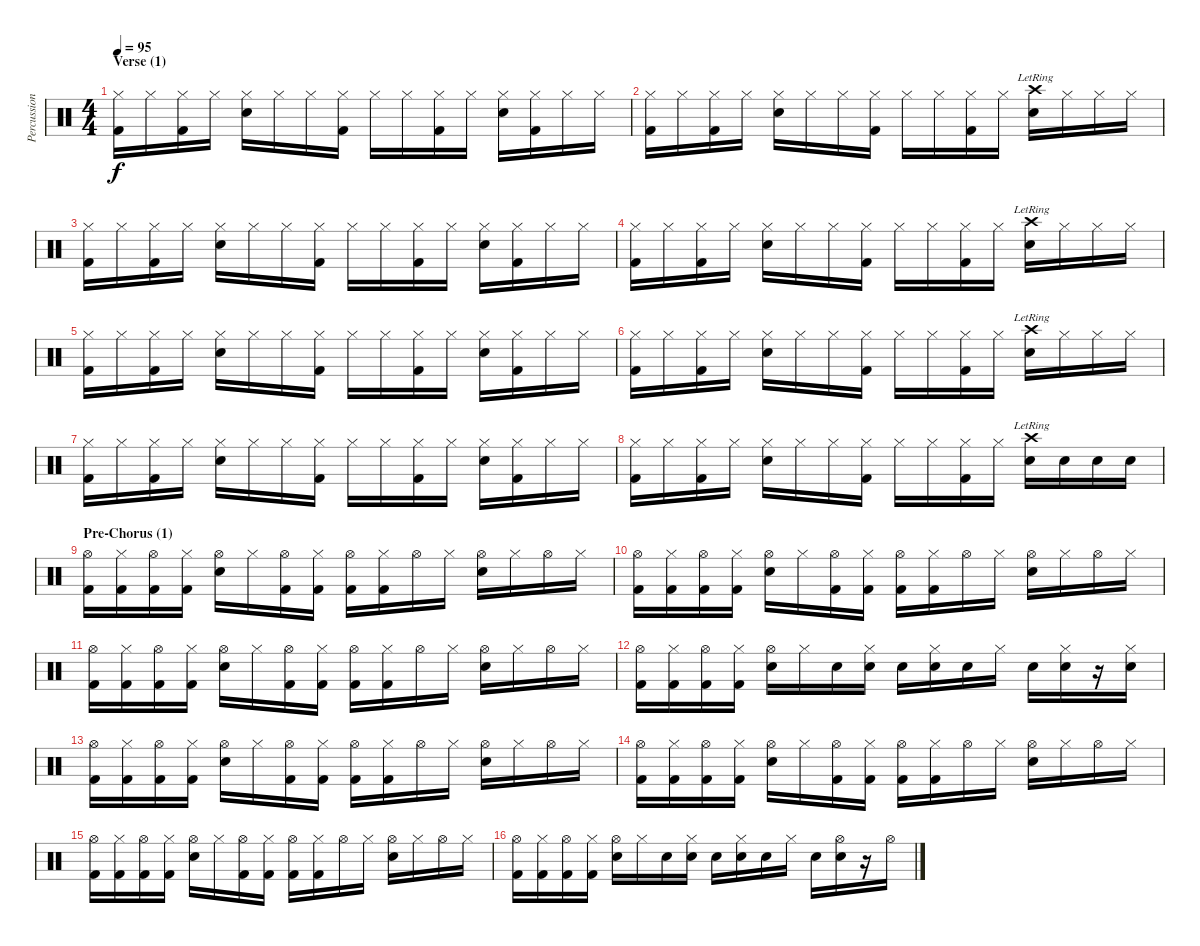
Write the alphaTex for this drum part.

\track ("Percussion" "Percussion") {instrument percussion}
\staff {score}
\articulation defaults
\ts (4 4)
\section ("" "Verse (1)")
\tempo 95
\clef neutral
\ks c
("Hi-Hat (closed)" "Kick (hit) 2").16{dy f} "Hi-Hat (closed)"{x}.16 ("Hi-Hat (closed)" "Kick (hit) 2").16 "Hi-Hat (closed)"{x}.16 ("Hi-Hat (closed)" "Snare (hit) 2").16 "Hi-Hat (closed)"{x}.16 "Hi-Hat (closed)".16 ("Hi-Hat (closed)"{x} "Kick (hit) 2").16 "Hi-Hat (closed)".16 "Hi-Hat (closed)"{x}.16 ("Hi-Hat (closed)" "Kick (hit) 2").16 "Hi-Hat (closed)"{x}.16 ("Hi-Hat (closed)" "Snare (hit) 2").16 ("Hi-Hat (closed)"{x} "Kick (hit) 2").16 "Hi-Hat (closed)".16 "Hi-Hat (closed)"{x}.16 |
("Hi-Hat (closed)" "Kick (hit) 2").16 "Hi-Hat (closed)"{x}.16 ("Hi-Hat (closed)" "Kick (hit) 2").16 "Hi-Hat (closed)"{x}.16 ("Hi-Hat (closed)" "Snare (hit) 2").16 "Hi-Hat (closed)"{x}.16 "Hi-Hat (closed)".16 ("Hi-Hat (closed)"{x} "Kick (hit) 2").16 "Hi-Hat (closed)".16 "Hi-Hat (closed)"{x}.16 ("Hi-Hat (closed)" "Kick (hit) 2").16 "Hi-Hat (closed)"{x}.16 ("Crash high (hit)"{lr} "Snare (hit) 2").16 "Hi-Hat (closed)"{x}.16 "Hi-Hat (closed)".16 "Hi-Hat (closed)"{x}.16 |
("Hi-Hat (closed)" "Kick (hit) 2").16 "Hi-Hat (closed)"{x}.16 ("Hi-Hat (closed)" "Kick (hit) 2").16 "Hi-Hat (closed)"{x}.16 ("Hi-Hat (closed)" "Snare (hit) 2").16 "Hi-Hat (closed)"{x}.16 "Hi-Hat (closed)".16 ("Hi-Hat (closed)"{x} "Kick (hit) 2").16 "Hi-Hat (closed)".16 "Hi-Hat (closed)"{x}.16 ("Hi-Hat (closed)" "Kick (hit) 2").16 "Hi-Hat (closed)"{x}.16 ("Hi-Hat (closed)" "Snare (hit) 2").16 ("Hi-Hat (closed)"{x} "Kick (hit) 2").16 "Hi-Hat (closed)".16 "Hi-Hat (closed)"{x}.16 |
("Hi-Hat (closed)" "Kick (hit) 2").16 "Hi-Hat (closed)"{x}.16 ("Hi-Hat (closed)" "Kick (hit) 2").16 "Hi-Hat (closed)"{x}.16 ("Hi-Hat (closed)" "Snare (hit) 2").16 "Hi-Hat (closed)"{x}.16 "Hi-Hat (closed)".16 ("Hi-Hat (closed)"{x} "Kick (hit) 2").16 "Hi-Hat (closed)".16 "Hi-Hat (closed)"{x}.16 ("Hi-Hat (closed)" "Kick (hit) 2").16 "Hi-Hat (closed)"{x}.16 ("Crash high (hit)"{lr} "Snare (hit) 2").16 "Hi-Hat (closed)"{x}.16 "Hi-Hat (closed)".16 "Hi-Hat (closed)"{x}.16 |
("Hi-Hat (closed)" "Kick (hit) 2").16 "Hi-Hat (closed)"{x}.16 ("Hi-Hat (closed)" "Kick (hit) 2").16 "Hi-Hat (closed)"{x}.16 ("Hi-Hat (closed)" "Snare (hit) 2").16 "Hi-Hat (closed)"{x}.16 "Hi-Hat (closed)".16 ("Hi-Hat (closed)"{x} "Kick (hit) 2").16 "Hi-Hat (closed)".16 "Hi-Hat (closed)"{x}.16 ("Hi-Hat (closed)" "Kick (hit) 2").16 "Hi-Hat (closed)"{x}.16 ("Hi-Hat (closed)" "Snare (hit) 2").16 ("Hi-Hat (closed)"{x} "Kick (hit) 2").16 "Hi-Hat (closed)".16 "Hi-Hat (closed)"{x}.16 |
("Hi-Hat (closed)" "Kick (hit) 2").16 "Hi-Hat (closed)"{x}.16 ("Hi-Hat (closed)" "Kick (hit) 2").16 "Hi-Hat (closed)"{x}.16 ("Hi-Hat (closed)" "Snare (hit) 2").16 "Hi-Hat (closed)"{x}.16 "Hi-Hat (closed)".16 ("Hi-Hat (closed)"{x} "Kick (hit) 2").16 "Hi-Hat (closed)".16 "Hi-Hat (closed)"{x}.16 ("Hi-Hat (closed)" "Kick (hit) 2").16 "Hi-Hat (closed)"{x}.16 ("Crash high (hit)"{lr} "Snare (hit) 2").16 "Hi-Hat (closed)"{x}.16 "Hi-Hat (closed)".16 "Hi-Hat (closed)"{x}.16 |
("Hi-Hat (closed)" "Kick (hit) 2").16 "Hi-Hat (closed)"{x}.16 ("Hi-Hat (closed)" "Kick (hit) 2").16 "Hi-Hat (closed)"{x}.16 ("Hi-Hat (closed)" "Snare (hit) 2").16 "Hi-Hat (closed)"{x}.16 "Hi-Hat (closed)".16 ("Hi-Hat (closed)"{x} "Kick (hit) 2").16 "Hi-Hat (closed)".16 "Hi-Hat (closed)"{x}.16 ("Hi-Hat (closed)" "Kick (hit) 2").16 "Hi-Hat (closed)"{x}.16 ("Hi-Hat (closed)" "Snare (hit) 2").16 ("Hi-Hat (closed)"{x} "Kick (hit) 2").16 "Hi-Hat (closed)".16 "Hi-Hat (closed)"{x}.16 |
("Hi-Hat (closed)" "Kick (hit) 2").16 "Hi-Hat (closed)"{x}.16 ("Hi-Hat (closed)" "Kick (hit) 2").16 "Hi-Hat (closed)"{x}.16 ("Hi-Hat (closed)" "Snare (hit) 2").16 "Hi-Hat (closed)"{x}.16 "Hi-Hat (closed)".16 ("Hi-Hat (closed)"{x} "Kick (hit) 2").16 "Hi-Hat (closed)".16 "Hi-Hat (closed)"{x}.16 ("Hi-Hat (closed)" "Kick (hit) 2").16 "Hi-Hat (closed)"{x}.16 ("Crash high (hit)"{lr} "Snare (hit) 2").16 "Snare (hit) 2".16 "Snare (hit) 2".16 "Snare (hit) 2".16 |
\section ("" "Pre-Chorus (1)")
("Kick (hit) 2" "Hi-Hat (open)").16 ("Kick (hit) 2" "Hi-Hat (closed)"{x}).16 ("Kick (hit) 2" "Hi-Hat (open)").16 ("Kick (hit) 2" "Hi-Hat (closed)"{x}).16 ("Snare (hit) 2" "Hi-Hat (open)").16 "Hi-Hat (closed)"{x}.16 ("Kick (hit) 2" "Hi-Hat (open)").16 ("Kick (hit) 2" "Hi-Hat (closed)"{x}).16 ("Kick (hit) 2" "Hi-Hat (open)").16 ("Kick (hit) 2" "Hi-Hat (closed)"{x}).16 "Hi-Hat (open)".16 "Hi-Hat (closed)"{x}.16 ("Snare (hit) 2" "Hi-Hat (open)").16 "Hi-Hat (closed)"{x}.16 "Hi-Hat (open)".16 "Hi-Hat (closed)"{x}.16 |
("Kick (hit) 2" "Hi-Hat (open)").16 ("Kick (hit) 2" "Hi-Hat (closed)"{x}).16 ("Kick (hit) 2" "Hi-Hat (open)").16 ("Kick (hit) 2" "Hi-Hat (closed)"{x}).16 ("Snare (hit) 2" "Hi-Hat (open)").16 "Hi-Hat (closed)"{x}.16 ("Kick (hit) 2" "Hi-Hat (open)").16 ("Kick (hit) 2" "Hi-Hat (closed)"{x}).16 ("Kick (hit) 2" "Hi-Hat (open)").16 ("Kick (hit) 2" "Hi-Hat (closed)"{x}).16 "Hi-Hat (open)".16 "Hi-Hat (closed)"{x}.16 ("Snare (hit) 2" "Hi-Hat (open)").16 "Hi-Hat (closed)"{x}.16 "Hi-Hat (open)".16 "Hi-Hat (closed)"{x}.16 |
("Kick (hit) 2" "Hi-Hat (open)").16 ("Kick (hit) 2" "Hi-Hat (closed)"{x}).16 ("Kick (hit) 2" "Hi-Hat (open)").16 ("Kick (hit) 2" "Hi-Hat (closed)"{x}).16 ("Snare (hit) 2" "Hi-Hat (open)").16 "Hi-Hat (closed)"{x}.16 ("Kick (hit) 2" "Hi-Hat (open)").16 ("Kick (hit) 2" "Hi-Hat (closed)"{x}).16 ("Kick (hit) 2" "Hi-Hat (open)").16 ("Kick (hit) 2" "Hi-Hat (closed)"{x}).16 "Hi-Hat (open)".16 "Hi-Hat (closed)"{x}.16 ("Snare (hit) 2" "Hi-Hat (open)").16 "Hi-Hat (closed)"{x}.16 "Hi-Hat (open)".16 "Hi-Hat (closed)"{x}.16 |
("Kick (hit) 2" "Hi-Hat (open)").16 ("Kick (hit) 2" "Hi-Hat (closed)"{x}).16 ("Kick (hit) 2" "Hi-Hat (open)").16 ("Kick (hit) 2" "Hi-Hat (closed)"{x}).16 ("Snare (hit) 2" "Hi-Hat (open)").16 "Hi-Hat (closed)"{x}.16 "Snare (hit) 2".16 ("Snare (hit) 2" "Hi-Hat (closed)"{x}).16 "Snare (hit) 2".16 ("Snare (hit) 2" "Hi-Hat (closed)"{x}).16 "Snare (hit) 2".16 "Hi-Hat (closed)"{x}.16 "Snare (hit) 2".16 ("Snare (hit) 2" "Hi-Hat (closed)"{x}).16 r.16 ("Snare (hit) 2" "Hi-Hat (closed)"{x}).16 |
("Kick (hit) 2" "Hi-Hat (open)").16 ("Kick (hit) 2" "Hi-Hat (closed)"{x}).16 ("Kick (hit) 2" "Hi-Hat (open)").16 ("Kick (hit) 2" "Hi-Hat (closed)"{x}).16 ("Snare (hit) 2" "Hi-Hat (open)").16 "Hi-Hat (closed)"{x}.16 ("Kick (hit) 2" "Hi-Hat (open)").16 ("Kick (hit) 2" "Hi-Hat (closed)"{x}).16 ("Kick (hit) 2" "Hi-Hat (open)").16 ("Kick (hit) 2" "Hi-Hat (closed)"{x}).16 "Hi-Hat (open)".16 "Hi-Hat (closed)"{x}.16 ("Snare (hit) 2" "Hi-Hat (open)").16 "Hi-Hat (closed)"{x}.16 "Hi-Hat (open)".16 "Hi-Hat (closed)"{x}.16 |
("Kick (hit) 2" "Hi-Hat (open)").16 ("Kick (hit) 2" "Hi-Hat (closed)"{x}).16 ("Kick (hit) 2" "Hi-Hat (open)").16 ("Kick (hit) 2" "Hi-Hat (closed)"{x}).16 ("Snare (hit) 2" "Hi-Hat (open)").16 "Hi-Hat (closed)"{x}.16 ("Kick (hit) 2" "Hi-Hat (open)").16 ("Kick (hit) 2" "Hi-Hat (closed)"{x}).16 ("Kick (hit) 2" "Hi-Hat (open)").16 ("Kick (hit) 2" "Hi-Hat (closed)"{x}).16 "Hi-Hat (open)".16 "Hi-Hat (closed)"{x}.16 ("Snare (hit) 2" "Hi-Hat (open)").16 "Hi-Hat (closed)"{x}.16 "Hi-Hat (open)".16 "Hi-Hat (closed)"{x}.16 |
("Kick (hit) 2" "Hi-Hat (open)").16 ("Kick (hit) 2" "Hi-Hat (closed)"{x}).16 ("Kick (hit) 2" "Hi-Hat (open)").16 ("Kick (hit) 2" "Hi-Hat (closed)"{x}).16 ("Snare (hit) 2" "Hi-Hat (open)").16 "Hi-Hat (closed)"{x}.16 ("Kick (hit) 2" "Hi-Hat (open)").16 ("Kick (hit) 2" "Hi-Hat (closed)"{x}).16 ("Kick (hit) 2" "Hi-Hat (open)").16 ("Kick (hit) 2" "Hi-Hat (closed)"{x}).16 "Hi-Hat (open)".16 "Hi-Hat (closed)"{x}.16 ("Snare (hit) 2" "Hi-Hat (open)").16 "Hi-Hat (closed)"{x}.16 "Hi-Hat (open)".16 "Hi-Hat (closed)"{x}.16 |
("Kick (hit) 2" "Hi-Hat (open)").16 ("Kick (hit) 2" "Hi-Hat (closed)"{x}).16 ("Kick (hit) 2" "Hi-Hat (open)").16 ("Kick (hit) 2" "Hi-Hat (closed)"{x}).16 ("Snare (hit) 2" "Hi-Hat (open)").16 "Hi-Hat (closed)"{x}.16 "Snare (hit) 2".16 ("Snare (hit) 2" "Hi-Hat (closed)"{x}).16 "Snare (hit) 2".16 ("Snare (hit) 2" "Hi-Hat (closed)"{x}).16 "Snare (hit) 2".16 "Hi-Hat (closed)"{x}.16 "Snare (hit) 2".16 ("Snare (hit) 2" "Hi-Hat (open)").16 r.16 "Hi-Hat (open)"{x}.16
